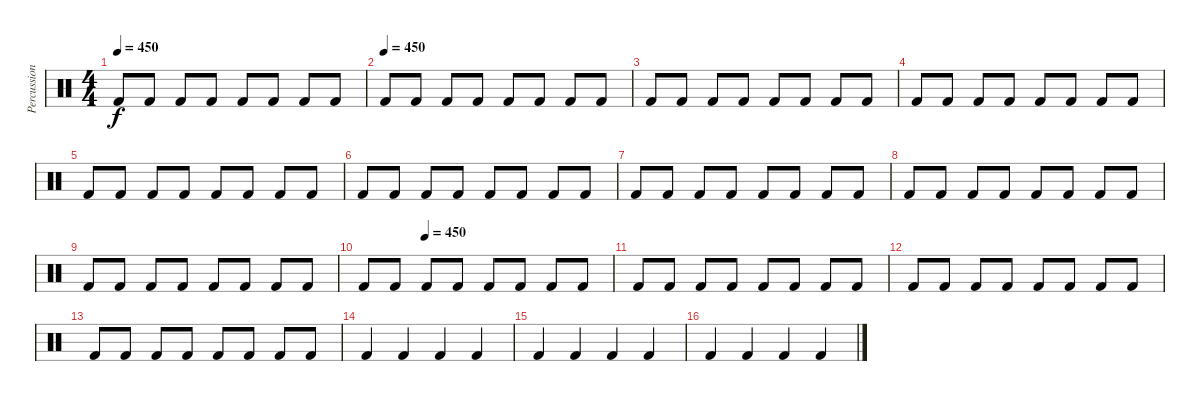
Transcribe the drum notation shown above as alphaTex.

\track ("Percussions2" "Percussion") {instrument percussion}
\staff {score}
\articulation defaults
\ts (4 4)
\tempo 450
\clef neutral
\ks c "Kick (hit) 2".8{dy f} "Kick (hit) 2".8 "Kick (hit) 2".8 "Kick (hit) 2".8 "Kick (hit) 2".8 "Kick (hit) 2".8 "Kick (hit) 2".8 "Kick (hit) 2".8
|
\tempo (450)
"Kick (hit) 2".8 "Kick (hit) 2".8 "Kick (hit) 2".8 "Kick (hit) 2".8 "Kick (hit) 2".8 "Kick (hit) 2".8 "Kick (hit) 2".8 "Kick (hit) 2".8 |
"Kick (hit) 2".8 "Kick (hit) 2".8 "Kick (hit) 2".8 "Kick (hit) 2".8 "Kick (hit) 2".8 "Kick (hit) 2".8 "Kick (hit) 2".8 "Kick (hit) 2".8 |
"Kick (hit) 2".8 "Kick (hit) 2".8 "Kick (hit) 2".8 "Kick (hit) 2".8 "Kick (hit) 2".8 "Kick (hit) 2".8 "Kick (hit) 2".8 "Kick (hit) 2".8 |
"Kick (hit) 2".8 "Kick (hit) 2".8 "Kick (hit) 2".8 "Kick (hit) 2".8 "Kick (hit) 2".8 "Kick (hit) 2".8 "Kick (hit) 2".8 "Kick (hit) 2".8 |
"Kick (hit) 2".8 "Kick (hit) 2".8 "Kick (hit) 2".8 "Kick (hit) 2".8 "Kick (hit) 2".8 "Kick (hit) 2".8 "Kick (hit) 2".8 "Kick (hit) 2".8 |
"Kick (hit) 2".8 "Kick (hit) 2".8 "Kick (hit) 2".8 "Kick (hit) 2".8 "Kick (hit) 2".8 "Kick (hit) 2".8 "Kick (hit) 2".8 "Kick (hit) 2".8 |
"Kick (hit) 2".8 "Kick (hit) 2".8 "Kick (hit) 2".8 "Kick (hit) 2".8 "Kick (hit) 2".8 "Kick (hit) 2".8 "Kick (hit) 2".8 "Kick (hit) 2".8 |
"Kick (hit) 2".8 "Kick (hit) 2".8 "Kick (hit) 2".8 "Kick (hit) 2".8 "Kick (hit) 2".8 "Kick (hit) 2".8 "Kick (hit) 2".8 "Kick (hit) 2".8 |
\tempo (450 0.25)
"Kick (hit) 2".8 "Kick (hit) 2".8 "Kick (hit) 2".8 "Kick (hit) 2".8 "Kick (hit) 2".8 "Kick (hit) 2".8 "Kick (hit) 2".8 "Kick (hit) 2".8 |
"Kick (hit) 2".8 "Kick (hit) 2".8 "Kick (hit) 2".8 "Kick (hit) 2".8 "Kick (hit) 2".8 "Kick (hit) 2".8 "Kick (hit) 2".8 "Kick (hit) 2".8 |
"Kick (hit) 2".8 "Kick (hit) 2".8 "Kick (hit) 2".8 "Kick (hit) 2".8 "Kick (hit) 2".8 "Kick (hit) 2".8 "Kick (hit) 2".8 "Kick (hit) 2".8 |
"Kick (hit) 2".8 "Kick (hit) 2".8 "Kick (hit) 2".8 "Kick (hit) 2".8 "Kick (hit) 2".8 "Kick (hit) 2".8 "Kick (hit) 2".8 "Kick (hit) 2".8 |
"Kick (hit) 2".4 "Kick (hit) 2".4 "Kick (hit) 2".4 "Kick (hit) 2".4 |
"Kick (hit) 2".4 "Kick (hit) 2".4 "Kick (hit) 2".4 "Kick (hit) 2".4 |
"Kick (hit) 2".4 "Kick (hit) 2".4 "Kick (hit) 2".4 "Kick (hit) 2".4
